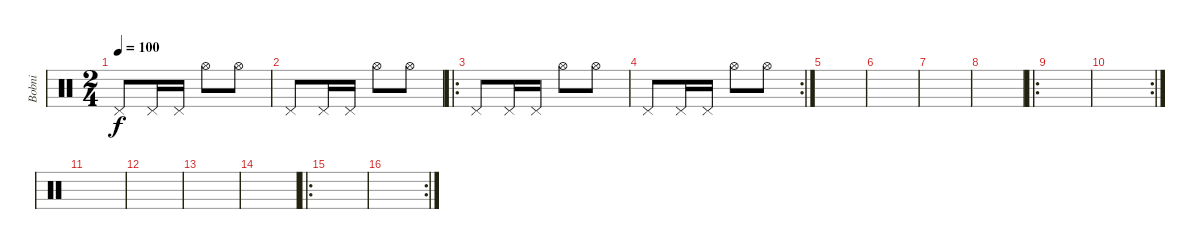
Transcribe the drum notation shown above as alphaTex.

\track ("Bobni" "Bobni") {instrument percussion}
\staff {score}
\articulation defaults
\ts (2 4)
\tempo 100
\clef neutral
\ks c "Pedal Hi-Hat (hit)".8{dy f} "Pedal Hi-Hat (hit)".16 "Pedal Hi-Hat (hit)".16 "Hi-Hat (open)".8 "Hi-Hat (open)".8
|
"Pedal Hi-Hat (hit)".8 "Pedal Hi-Hat (hit)".16 "Pedal Hi-Hat (hit)".16 "Hi-Hat (open)".8 "Hi-Hat (open)".8 |
\ro "Pedal Hi-Hat (hit)".8 "Pedal Hi-Hat (hit)".16 "Pedal Hi-Hat (hit)".16 "Hi-Hat (open)".8 "Hi-Hat (open)".8
|
\rc 2 "Pedal Hi-Hat (hit)".8 "Pedal Hi-Hat (hit)".16 "Pedal Hi-Hat (hit)".16 "Hi-Hat (open)".8 "Hi-Hat (open)".8
|
|
|
|
|
\ro
|
\rc 2
|
|
|
|
|
\ro
|
\rc 2
